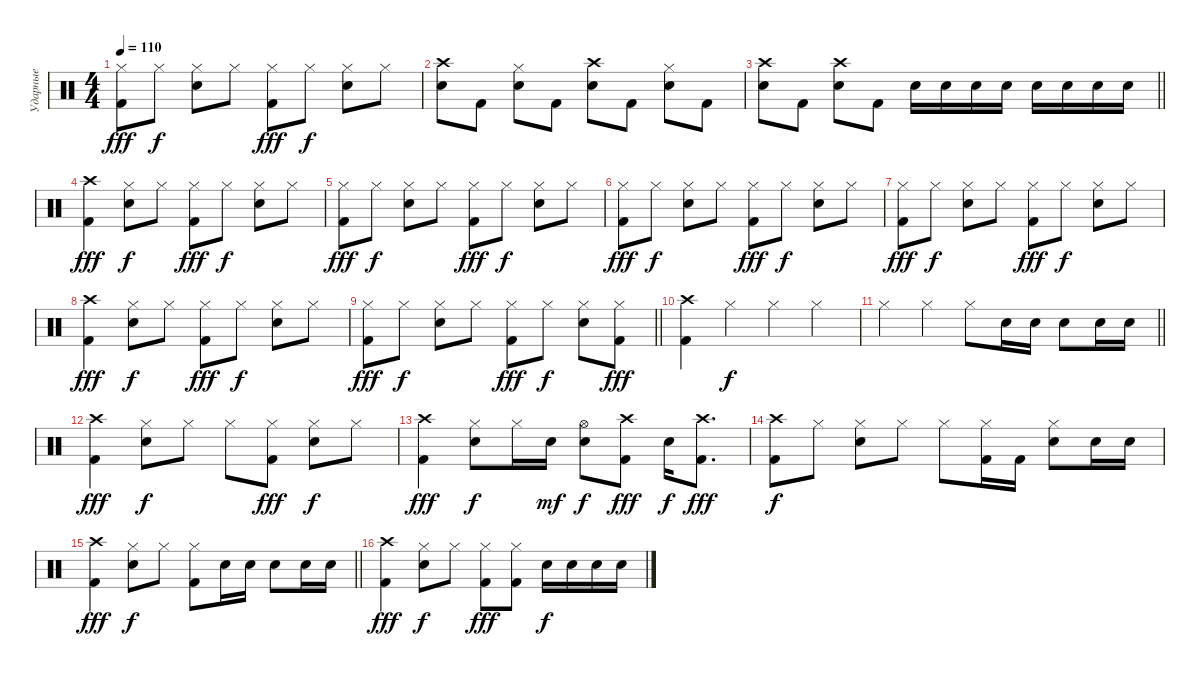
\track ("Ударные" "Ударные") {instrument percussion}
\staff
\articulation defaults
\ts (4 4)
\tempo 110
\clef neutral
\ks c
("Kick (hit) 2" "Hi-Hat (closed)").8{dy fff} "Hi-Hat (closed)".8{dy f} ("Snare (hit) 2" "Hi-Hat (closed)").8 "Hi-Hat (closed)".8 ("Kick (hit) 2" "Hi-Hat (closed)").8{dy fff} "Hi-Hat (closed)".8{dy f} ("Snare (hit) 2" "Hi-Hat (closed)").8 "Hi-Hat (closed)".8 |
("Snare (hit) 2" "Crash high (hit)").8 "Kick (hit) 2".8 ("Snare (hit) 2" "Hi-Hat (closed)").8 "Kick (hit) 2".8 ("Snare (hit) 2" "Crash high (hit)").8 "Kick (hit) 2".8 ("Snare (hit) 2" "Hi-Hat (closed)").8 "Kick (hit) 2".8 |
\barLineRight lightlight
("Snare (hit) 2" "Crash high (hit)").8 "Kick (hit) 2".8 ("Snare (hit) 2" "Crash high (hit)").8 "Kick (hit) 2".8 "Snare (hit) 2".16 "Snare (hit) 2".16 "Snare (hit) 2".16 "Snare (hit) 2".16 "Snare (hit) 2".16 "Snare (hit) 2".16 "Snare (hit) 2".16 "Snare (hit) 2".16 |
("Kick (hit) 2" "Crash high (hit)").4{dy fff} ("Snare (hit) 2" "Hi-Hat (closed)").8{dy f} "Hi-Hat (closed)".8 ("Kick (hit) 2" "Hi-Hat (closed)").8{dy fff} "Hi-Hat (closed)".8{dy f} ("Snare (hit) 2" "Hi-Hat (closed)").8 "Hi-Hat (closed)".8 |
("Kick (hit) 2" "Hi-Hat (closed)").8{dy fff} "Hi-Hat (closed)".8{dy f} ("Snare (hit) 2" "Hi-Hat (closed)").8 "Hi-Hat (closed)".8 ("Kick (hit) 2" "Hi-Hat (closed)").8{dy fff} "Hi-Hat (closed)".8{dy f} ("Snare (hit) 2" "Hi-Hat (closed)").8 "Hi-Hat (closed)".8 |
("Kick (hit) 2" "Hi-Hat (closed)").8{dy fff} "Hi-Hat (closed)".8{dy f} ("Snare (hit) 2" "Hi-Hat (closed)").8 "Hi-Hat (closed)".8 ("Kick (hit) 2" "Hi-Hat (closed)").8{dy fff} "Hi-Hat (closed)".8{dy f} ("Snare (hit) 2" "Hi-Hat (closed)").8 "Hi-Hat (closed)".8 |
("Kick (hit) 2" "Hi-Hat (closed)").8{dy fff} "Hi-Hat (closed)".8{dy f} ("Snare (hit) 2" "Hi-Hat (closed)").8 "Hi-Hat (closed)".8 ("Kick (hit) 2" "Hi-Hat (closed)").8{dy fff} "Hi-Hat (closed)".8{dy f} ("Snare (hit) 2" "Hi-Hat (closed)").8 "Hi-Hat (closed)".8 |
("Kick (hit) 2" "Crash high (hit)").4{dy fff} ("Snare (hit) 2" "Hi-Hat (closed)").8{dy f} "Hi-Hat (closed)".8 ("Kick (hit) 2" "Hi-Hat (closed)").8{dy fff} "Hi-Hat (closed)".8{dy f} ("Snare (hit) 2" "Hi-Hat (closed)").8 "Hi-Hat (closed)".8 |
\barLineRight lightlight
("Kick (hit) 2" "Hi-Hat (closed)").8{dy fff} "Hi-Hat (closed)".8{dy f} ("Snare (hit) 2" "Hi-Hat (closed)").8 "Hi-Hat (closed)".8 ("Kick (hit) 2" "Hi-Hat (closed)").8{dy fff} "Hi-Hat (closed)".8{dy f} ("Snare (hit) 2" "Hi-Hat (closed)").8 ("Kick (hit) 2" "Hi-Hat (closed)").8{dy fff} |
("Kick (hit) 2" "Crash high (hit)").4 "Hi-Hat (closed)".4{dy f} "Hi-Hat (closed)".4 "Hi-Hat (closed)".4 |
\barLineRight lightlight "Hi-Hat (closed)".4 "Hi-Hat (closed)".4 "Hi-Hat (closed)".8 "Snare (hit) 2".16 "Snare (hit) 2".16 "Snare (hit) 2".8 "Snare (hit) 2".16 "Snare (hit) 2".16
|
("Kick (hit) 2" "Crash high (hit)").4{dy fff} ("Snare (hit) 2" "Hi-Hat (closed)").8{dy f} "Hi-Hat (closed)".8 "Hi-Hat (closed)".8 ("Kick (hit) 2" "Hi-Hat (closed)").8{dy fff} ("Snare (hit) 2" "Hi-Hat (closed)").8{dy f} "Hi-Hat (closed)".8 |
("Kick (hit) 2" "Crash high (hit)").4{dy fff} ("Snare (hit) 2" "Hi-Hat (closed)").8{dy f} "Hi-Hat (closed)".16 "Snare (hit) 2".16{dy mf} ("Snare (hit) 2" "Hi-Hat (open)").8{dy f} ("Kick (hit) 2" "Crash high (hit)").8{dy fff} "Snare (hit) 2".16{dy f} ("Kick (hit) 2" "Crash high (hit)").8{d dy fff} |
("Kick (hit) 2" "Crash high (hit)").8{dy f} "Hi-Hat (closed)".8 ("Snare (hit) 2" "Hi-Hat (closed)").8 "Hi-Hat (closed)".8 "Hi-Hat (closed)".8 ("Kick (hit) 2" "Hi-Hat (closed)").16 "Kick (hit) 2".16 ("Snare (hit) 2" "Hi-Hat (closed)").8 "Snare (hit) 2".16 "Snare (hit) 2".16 |
\barLineRight lightlight
("Kick (hit) 2" "Crash high (hit)").4{dy fff} ("Snare (hit) 2" "Hi-Hat (closed)").8{dy f} "Hi-Hat (closed)".8 ("Kick (hit) 2" "Hi-Hat (closed)").8 "Snare (hit) 2".16 "Snare (hit) 2".16 "Snare (hit) 2".8 "Snare (hit) 2".16 "Snare (hit) 2".16 |
("Kick (hit) 2" "Crash high (hit)").4{dy fff} ("Snare (hit) 2" "Hi-Hat (closed)").8{dy f} "Hi-Hat (closed)".8 ("Kick (hit) 2" "Hi-Hat (closed)").8{dy fff} ("Kick (hit) 2" "Hi-Hat (closed)").8 "Snare (hit) 2".16{dy f} "Snare (hit) 2".16 "Snare (hit) 2".16 "Snare (hit) 2".16
